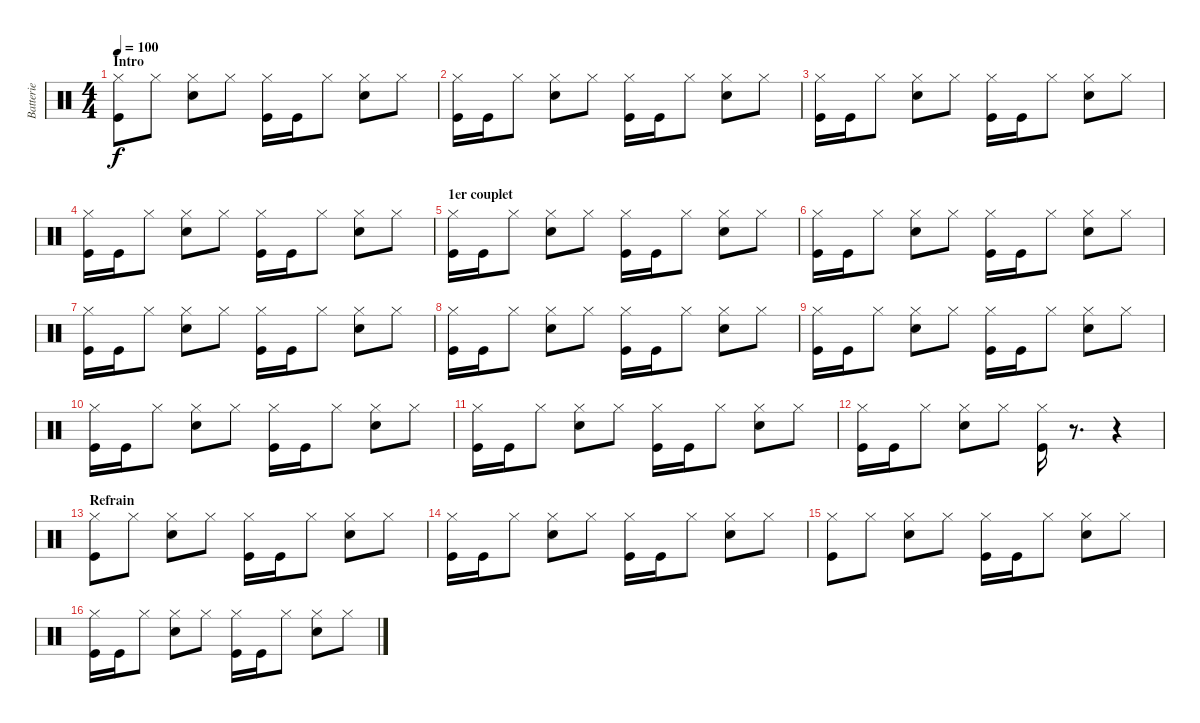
\track ("Batterie " "Batterie ") {instrument percussion}
\staff {score}
\articulation defaults
\ts (4 4)
\section ("" "Intro")
\tempo 100
\clef neutral
\ks c
("Hi-Hat (closed)" "Kick (hit)").8{dy f} "Hi-Hat (closed)".8 ("Electric Snare (hit)" "Hi-Hat (closed)").8 "Hi-Hat (closed)".8 ("Hi-Hat (closed)" "Kick (hit)").16 "Kick (hit)".16 "Hi-Hat (closed)".8 ("Electric Snare (hit)" "Hi-Hat (closed)").8 "Hi-Hat (closed)".8 |
("Hi-Hat (closed)" "Kick (hit)").16 "Kick (hit)".16 "Hi-Hat (closed)".8 ("Electric Snare (hit)" "Hi-Hat (closed)").8 "Hi-Hat (closed)".8 ("Hi-Hat (closed)" "Kick (hit)").16 "Kick (hit)".16 "Hi-Hat (closed)".8 ("Electric Snare (hit)" "Hi-Hat (closed)").8 "Hi-Hat (closed)".8 |
("Hi-Hat (closed)" "Kick (hit)").16 "Kick (hit)".16 "Hi-Hat (closed)".8 ("Electric Snare (hit)" "Hi-Hat (closed)").8 "Hi-Hat (closed)".8 ("Hi-Hat (closed)" "Kick (hit)").16 "Kick (hit)".16 "Hi-Hat (closed)".8 ("Electric Snare (hit)" "Hi-Hat (closed)").8 "Hi-Hat (closed)".8 |
("Hi-Hat (closed)" "Kick (hit)").16 "Kick (hit)".16 "Hi-Hat (closed)".8 ("Electric Snare (hit)" "Hi-Hat (closed)").8 "Hi-Hat (closed)".8 ("Hi-Hat (closed)" "Kick (hit)").16 "Kick (hit)".16 "Hi-Hat (closed)".8 ("Electric Snare (hit)" "Hi-Hat (closed)").8 "Hi-Hat (closed)".8 |
\section ("" "1er couplet")
("Hi-Hat (closed)" "Kick (hit)").16 "Kick (hit)".16 "Hi-Hat (closed)".8 ("Electric Snare (hit)" "Hi-Hat (closed)").8 "Hi-Hat (closed)".8 ("Hi-Hat (closed)" "Kick (hit)").16 "Kick (hit)".16 "Hi-Hat (closed)".8 ("Electric Snare (hit)" "Hi-Hat (closed)").8 "Hi-Hat (closed)".8 |
("Hi-Hat (closed)" "Kick (hit)").16 "Kick (hit)".16 "Hi-Hat (closed)".8 ("Electric Snare (hit)" "Hi-Hat (closed)").8 "Hi-Hat (closed)".8 ("Hi-Hat (closed)" "Kick (hit)").16 "Kick (hit)".16 "Hi-Hat (closed)".8 ("Electric Snare (hit)" "Hi-Hat (closed)").8 "Hi-Hat (closed)".8 |
("Hi-Hat (closed)" "Kick (hit)").16 "Kick (hit)".16 "Hi-Hat (closed)".8 ("Electric Snare (hit)" "Hi-Hat (closed)").8 "Hi-Hat (closed)".8 ("Hi-Hat (closed)" "Kick (hit)").16 "Kick (hit)".16 "Hi-Hat (closed)".8 ("Electric Snare (hit)" "Hi-Hat (closed)").8 "Hi-Hat (closed)".8 |
("Hi-Hat (closed)" "Kick (hit)").16 "Kick (hit)".16 "Hi-Hat (closed)".8 ("Electric Snare (hit)" "Hi-Hat (closed)").8 "Hi-Hat (closed)".8 ("Hi-Hat (closed)" "Kick (hit)").16 "Kick (hit)".16 "Hi-Hat (closed)".8 ("Electric Snare (hit)" "Hi-Hat (closed)").8 "Hi-Hat (closed)".8 |
("Hi-Hat (closed)" "Kick (hit)").16 "Kick (hit)".16 "Hi-Hat (closed)".8 ("Electric Snare (hit)" "Hi-Hat (closed)").8 "Hi-Hat (closed)".8 ("Hi-Hat (closed)" "Kick (hit)").16 "Kick (hit)".16 "Hi-Hat (closed)".8 ("Electric Snare (hit)" "Hi-Hat (closed)").8 "Hi-Hat (closed)".8 |
("Hi-Hat (closed)" "Kick (hit)").16 "Kick (hit)".16 "Hi-Hat (closed)".8 ("Electric Snare (hit)" "Hi-Hat (closed)").8 "Hi-Hat (closed)".8 ("Hi-Hat (closed)" "Kick (hit)").16 "Kick (hit)".16 "Hi-Hat (closed)".8 ("Electric Snare (hit)" "Hi-Hat (closed)").8 "Hi-Hat (closed)".8 |
("Hi-Hat (closed)" "Kick (hit)").16 "Kick (hit)".16 "Hi-Hat (closed)".8 ("Electric Snare (hit)" "Hi-Hat (closed)").8 "Hi-Hat (closed)".8 ("Hi-Hat (closed)" "Kick (hit)").16 "Kick (hit)".16 "Hi-Hat (closed)".8 ("Electric Snare (hit)" "Hi-Hat (closed)").8 "Hi-Hat (closed)".8 |
("Hi-Hat (closed)" "Kick (hit)").16 "Kick (hit)".16 "Hi-Hat (closed)".8 ("Electric Snare (hit)" "Hi-Hat (closed)").8 "Hi-Hat (closed)".8 ("Hi-Hat (closed)" "Kick (hit)").16 r.8{d} r.4 |
\section ("" "Refrain")
("Hi-Hat (closed)" "Kick (hit)").8 "Hi-Hat (closed)".8 ("Electric Snare (hit)" "Hi-Hat (closed)").8 "Hi-Hat (closed)".8 ("Hi-Hat (closed)" "Kick (hit)").16 "Kick (hit)".16 "Hi-Hat (closed)".8 ("Electric Snare (hit)" "Hi-Hat (closed)").8 "Hi-Hat (closed)".8 |
("Hi-Hat (closed)" "Kick (hit)").16 "Kick (hit)".16 "Hi-Hat (closed)".8 ("Electric Snare (hit)" "Hi-Hat (closed)").8 "Hi-Hat (closed)".8 ("Hi-Hat (closed)" "Kick (hit)").16 "Kick (hit)".16 "Hi-Hat (closed)".8 ("Electric Snare (hit)" "Hi-Hat (closed)").8 "Hi-Hat (closed)".8 |
("Hi-Hat (closed)" "Kick (hit)").8 "Hi-Hat (closed)".8 ("Electric Snare (hit)" "Hi-Hat (closed)").8 "Hi-Hat (closed)".8 ("Hi-Hat (closed)" "Kick (hit)").16 "Kick (hit)".16 "Hi-Hat (closed)".8 ("Electric Snare (hit)" "Hi-Hat (closed)").8 "Hi-Hat (closed)".8 |
("Hi-Hat (closed)" "Kick (hit)").16 "Kick (hit)".16 "Hi-Hat (closed)".8 ("Electric Snare (hit)" "Hi-Hat (closed)").8 "Hi-Hat (closed)".8 ("Hi-Hat (closed)" "Kick (hit)").16 "Kick (hit)".16 "Hi-Hat (closed)".8 ("Electric Snare (hit)" "Hi-Hat (closed)").8 "Hi-Hat (closed)".8
